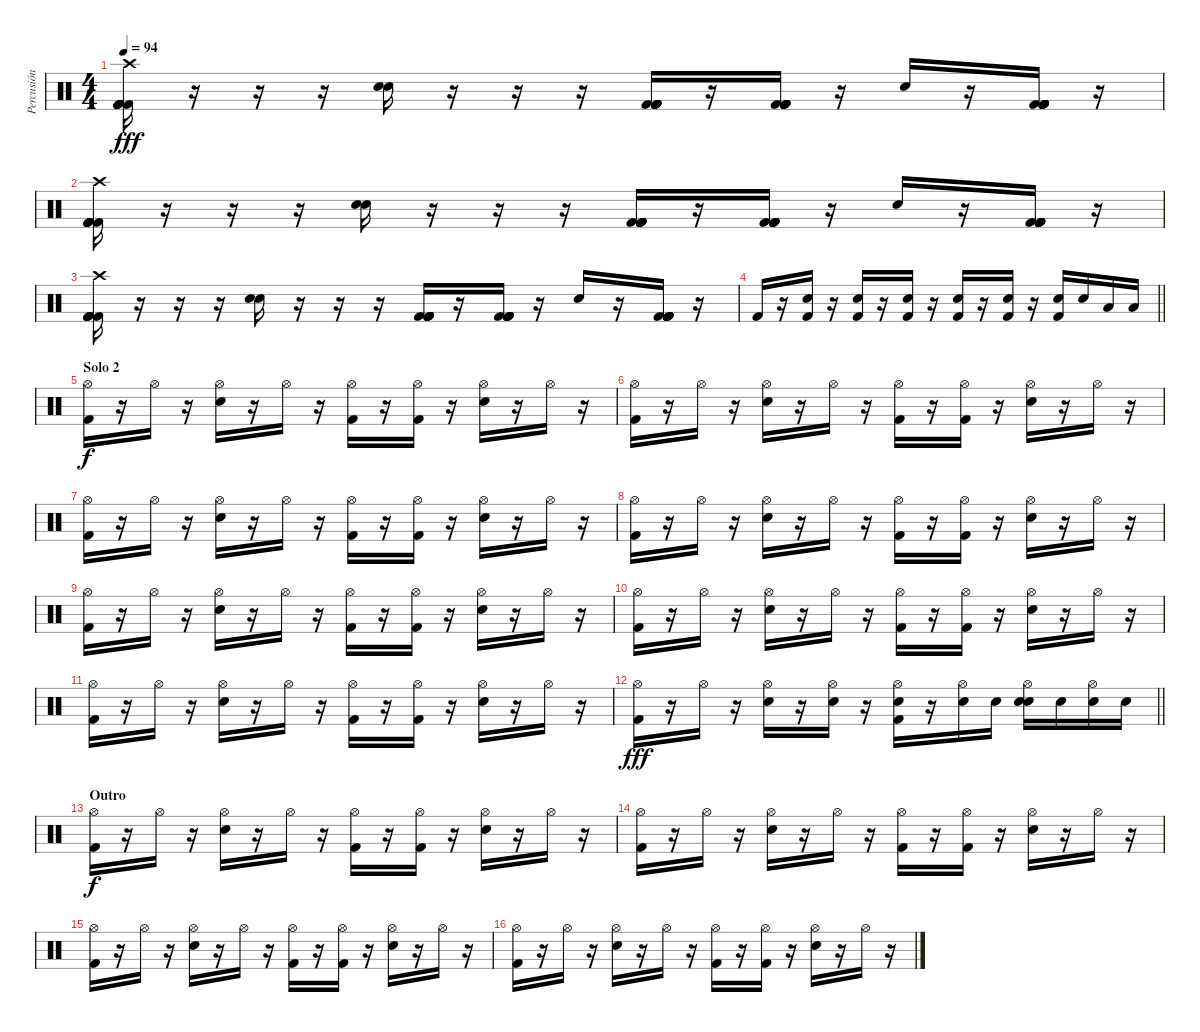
\track ("Percusión" "Percusión") {instrument percussion}
\staff {score}
\articulation defaults
\ts (4 4)
\tempo 94
\clef neutral
\ks c
("Crash high (hit)" "Kick (hit) 2" "Kick (hit) 2" "Kick (hit) 2" "Kick (hit) 2" "Kick (hit) 2").16{dy fff} r.16 r.16 r.16 ("Electric Snare (hit)" "Electric Snare (hit)").16 r.16 r.16 r.16 ("Kick (hit) 2" "Kick (hit) 2" "Kick (hit) 2" "Kick (hit) 2" "Kick (hit) 2" "Kick (hit) 2").16 r.16 ("Kick (hit) 2" "Kick (hit) 2" "Kick (hit) 2" "Kick (hit) 2" "Kick (hit) 2" "Kick (hit) 2").16 r.16 "Electric Snare (hit)".16 r.16 ("Kick (hit) 2" "Kick (hit) 2" "Kick (hit) 2" "Kick (hit) 2" "Kick (hit) 2" "Kick (hit) 2").16 r.16 |
("Crash high (hit)" "Kick (hit) 2" "Kick (hit) 2" "Kick (hit) 2" "Kick (hit) 2" "Kick (hit) 2").16 r.16 r.16 r.16 ("Electric Snare (hit)" "Electric Snare (hit)").16 r.16 r.16 r.16 ("Kick (hit) 2" "Kick (hit) 2" "Kick (hit) 2" "Kick (hit) 2" "Kick (hit) 2" "Kick (hit) 2").16 r.16 ("Kick (hit) 2" "Kick (hit) 2" "Kick (hit) 2" "Kick (hit) 2" "Kick (hit) 2" "Kick (hit) 2").16 r.16 "Electric Snare (hit)".16 r.16 ("Kick (hit) 2" "Kick (hit) 2" "Kick (hit) 2" "Kick (hit) 2" "Kick (hit) 2" "Kick (hit) 2").16 r.16 |
("Crash high (hit)" "Kick (hit) 2" "Kick (hit) 2" "Kick (hit) 2" "Kick (hit) 2" "Kick (hit) 2").16 r.16 r.16 r.16 ("Electric Snare (hit)" "Electric Snare (hit)").16 r.16 r.16 r.16 ("Kick (hit) 2" "Kick (hit) 2" "Kick (hit) 2" "Kick (hit) 2" "Kick (hit) 2" "Kick (hit) 2").16 r.16 ("Kick (hit) 2" "Kick (hit) 2" "Kick (hit) 2" "Kick (hit) 2" "Kick (hit) 2" "Kick (hit) 2").16 r.16 "Electric Snare (hit)".16 r.16 ("Kick (hit) 2" "Kick (hit) 2" "Kick (hit) 2" "Kick (hit) 2" "Kick (hit) 2" "Kick (hit) 2").16 r.16 |
\barLineRight lightlight "Kick (hit) 2".16
r.16 ("Kick (hit) 2" "Electric Snare (hit)").16 r.16 ("Kick (hit) 2" "Electric Snare (hit)").16 r.16 ("Kick (hit) 2" "Electric Snare (hit)").16 r.16 ("Kick (hit) 2" "Electric Snare (hit)").16 r.16 ("Kick (hit) 2" "Electric Snare (hit)").16 r.16 ("Kick (hit) 2" "Electric Snare (hit)").16 "Electric Snare (hit)".16 "Low Tom (hit)".16 "Low Tom (hit)".16 |
\section ("" "Solo 2")
("Hi-Hat (open)" "Kick (hit) 2").16{dy f} r.16 "Hi-Hat (open)".16 r.16 ("Hi-Hat (open)" "Electric Snare (hit)").16 r.16 "Hi-Hat (open)".16 r.16 ("Hi-Hat (open)" "Kick (hit) 2").16 r.16 ("Hi-Hat (open)" "Kick (hit) 2").16 r.16 ("Hi-Hat (open)" "Electric Snare (hit)").16 r.16 "Hi-Hat (open)".16 r.16 |
("Hi-Hat (open)" "Kick (hit) 2").16 r.16 "Hi-Hat (open)".16 r.16 ("Hi-Hat (open)" "Electric Snare (hit)").16 r.16 "Hi-Hat (open)".16 r.16 ("Hi-Hat (open)" "Kick (hit) 2").16 r.16 ("Hi-Hat (open)" "Kick (hit) 2").16 r.16 ("Hi-Hat (open)" "Electric Snare (hit)").16 r.16 "Hi-Hat (open)".16 r.16 |
("Hi-Hat (open)" "Kick (hit) 2").16 r.16 "Hi-Hat (open)".16 r.16 ("Hi-Hat (open)" "Electric Snare (hit)").16 r.16 "Hi-Hat (open)".16 r.16 ("Hi-Hat (open)" "Kick (hit) 2").16 r.16 ("Hi-Hat (open)" "Kick (hit) 2").16 r.16 ("Hi-Hat (open)" "Electric Snare (hit)").16 r.16 "Hi-Hat (open)".16 r.16 |
("Hi-Hat (open)" "Kick (hit) 2").16 r.16 "Hi-Hat (open)".16 r.16 ("Hi-Hat (open)" "Electric Snare (hit)").16 r.16 "Hi-Hat (open)".16 r.16 ("Hi-Hat (open)" "Kick (hit) 2").16 r.16 ("Hi-Hat (open)" "Kick (hit) 2").16 r.16 ("Hi-Hat (open)" "Electric Snare (hit)").16 r.16 "Hi-Hat (open)".16 r.16 |
("Hi-Hat (open)" "Kick (hit) 2").16 r.16 "Hi-Hat (open)".16 r.16 ("Hi-Hat (open)" "Electric Snare (hit)").16 r.16 "Hi-Hat (open)".16 r.16 ("Hi-Hat (open)" "Kick (hit) 2").16 r.16 ("Hi-Hat (open)" "Kick (hit) 2").16 r.16 ("Hi-Hat (open)" "Electric Snare (hit)").16 r.16 "Hi-Hat (open)".16 r.16 |
("Hi-Hat (open)" "Kick (hit) 2").16 r.16 "Hi-Hat (open)".16 r.16 ("Hi-Hat (open)" "Electric Snare (hit)").16 r.16 "Hi-Hat (open)".16 r.16 ("Hi-Hat (open)" "Kick (hit) 2").16 r.16 ("Hi-Hat (open)" "Kick (hit) 2").16 r.16 ("Hi-Hat (open)" "Electric Snare (hit)").16 r.16 "Hi-Hat (open)".16 r.16 |
("Hi-Hat (open)" "Kick (hit) 2").16 r.16 "Hi-Hat (open)".16 r.16 ("Hi-Hat (open)" "Electric Snare (hit)").16 r.16 "Hi-Hat (open)".16 r.16 ("Hi-Hat (open)" "Kick (hit) 2").16 r.16 ("Hi-Hat (open)" "Kick (hit) 2").16 r.16 ("Hi-Hat (open)" "Electric Snare (hit)").16 r.16 "Hi-Hat (open)".16 r.16 |
\barLineRight lightlight
("Hi-Hat (open)" "Kick (hit) 2").16{dy fff} r.16 "Hi-Hat (open)".16 r.16 ("Hi-Hat (open)" "Electric Snare (hit)").16 r.16 ("Hi-Hat (open)" "Electric Snare (hit)").16 r.16 ("Hi-Hat (open)" "Kick (hit) 2" "Electric Snare (hit)").16 r.16 ("Hi-Hat (open)" "Electric Snare (hit)").16 "Electric Snare (hit)".16 ("Hi-Hat (open)" "Electric Snare (hit)" "Electric Snare (hit)").16 "Electric Snare (hit)".16 ("Hi-Hat (open)" "Electric Snare (hit)").16 "Electric Snare (hit)".16 |
\section ("" "Outro")
("Hi-Hat (open)" "Kick (hit) 2").16{dy f} r.16 "Hi-Hat (open)".16 r.16 ("Hi-Hat (open)" "Electric Snare (hit)").16 r.16 "Hi-Hat (open)".16 r.16 ("Hi-Hat (open)" "Kick (hit) 2").16 r.16 ("Hi-Hat (open)" "Kick (hit) 2").16 r.16 ("Hi-Hat (open)" "Electric Snare (hit)").16 r.16 "Hi-Hat (open)".16 r.16 |
("Hi-Hat (open)" "Kick (hit) 2").16 r.16 "Hi-Hat (open)".16 r.16 ("Hi-Hat (open)" "Electric Snare (hit)").16 r.16 "Hi-Hat (open)".16 r.16 ("Hi-Hat (open)" "Kick (hit) 2").16 r.16 ("Hi-Hat (open)" "Kick (hit) 2").16 r.16 ("Hi-Hat (open)" "Electric Snare (hit)").16 r.16 "Hi-Hat (open)".16 r.16 |
("Hi-Hat (open)" "Kick (hit) 2").16 r.16 "Hi-Hat (open)".16 r.16 ("Hi-Hat (open)" "Electric Snare (hit)").16 r.16 "Hi-Hat (open)".16 r.16 ("Hi-Hat (open)" "Kick (hit) 2").16 r.16 ("Hi-Hat (open)" "Kick (hit) 2").16 r.16 ("Hi-Hat (open)" "Electric Snare (hit)").16 r.16 "Hi-Hat (open)".16 r.16 |
("Hi-Hat (open)" "Kick (hit) 2").16 r.16 "Hi-Hat (open)".16 r.16 ("Hi-Hat (open)" "Electric Snare (hit)").16 r.16 "Hi-Hat (open)".16 r.16 ("Hi-Hat (open)" "Kick (hit) 2").16 r.16 ("Hi-Hat (open)" "Kick (hit) 2").16 r.16 ("Hi-Hat (open)" "Electric Snare (hit)").16 r.16 "Hi-Hat (open)".16 r.16
